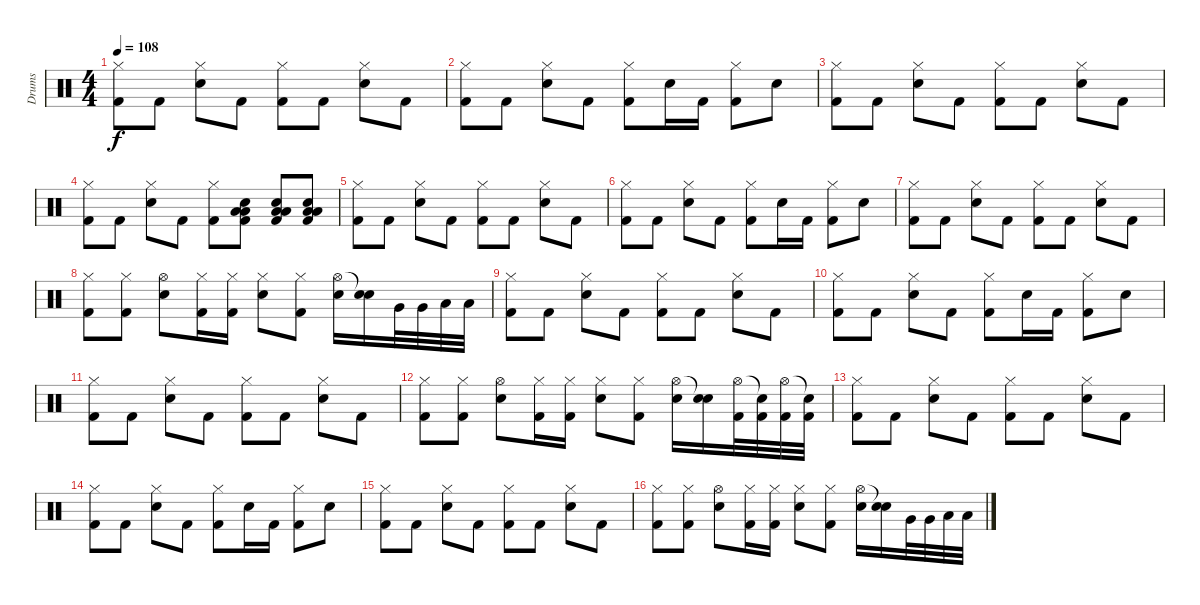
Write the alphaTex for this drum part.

\track ("Drums" "Drums") {instrument percussion}
\staff {score}
\articulation defaults
\ts (4 4)
\tempo 108
\clef neutral
\ks c
("Hi-Hat (closed)" "Kick (hit) 2").8{dy f} "Kick (hit) 2".8 ("Hi-Hat (closed)" "Electric Snare (hit)").8 "Kick (hit) 2".8 ("Hi-Hat (closed)" "Kick (hit) 2").8 "Kick (hit) 2".8 ("Hi-Hat (closed)" "Electric Snare (hit)").8 "Kick (hit) 2".8 |
("Hi-Hat (closed)" "Kick (hit) 2").8 "Kick (hit) 2".8 ("Hi-Hat (closed)" "Electric Snare (hit)").8 "Kick (hit) 2".8 ("Hi-Hat (closed)" "Kick (hit) 2").8 "Electric Snare (hit)".16 "Kick (hit) 2".16 ("Hi-Hat (closed)" "Kick (hit) 2").8 "Electric Snare (hit)".8 |
("Hi-Hat (closed)" "Kick (hit) 2").8 "Kick (hit) 2".8 ("Hi-Hat (closed)" "Electric Snare (hit)").8 "Kick (hit) 2".8 ("Hi-Hat (closed)" "Kick (hit) 2").8 "Kick (hit) 2".8 ("Hi-Hat (closed)" "Electric Snare (hit)").8 "Kick (hit) 2".8 |
("Hi-Hat (closed)" "Kick (hit) 2").8 "Kick (hit) 2".8 ("Hi-Hat (closed)" "Electric Snare (hit)").8 "Kick (hit) 2".8 ("Hi-Hat (closed)" "Kick (hit) 2").8 ("Low Floor Tom (hit)" "Kick (hit) 2" "Low Floor Tom (hit)" "Electric Snare (hit)").8 ("Low Floor Tom (hit)" "Kick (hit) 2" "Low Floor Tom (hit)" "Electric Snare (hit)").8 ("Low Floor Tom (hit)" "Kick (hit) 2" "Low Floor Tom (hit)" "Electric Snare (hit)").8 |
("Hi-Hat (closed)" "Kick (hit) 2").8 "Kick (hit) 2".8 ("Hi-Hat (closed)" "Electric Snare (hit)").8 "Kick (hit) 2".8 ("Hi-Hat (closed)" "Kick (hit) 2").8 "Kick (hit) 2".8 ("Hi-Hat (closed)" "Electric Snare (hit)").8 "Kick (hit) 2".8 |
("Hi-Hat (closed)" "Kick (hit) 2").8 "Kick (hit) 2".8 ("Hi-Hat (closed)" "Electric Snare (hit)").8 "Kick (hit) 2".8 ("Hi-Hat (closed)" "Kick (hit) 2").8 "Electric Snare (hit)".16 "Kick (hit) 2".16 ("Hi-Hat (closed)" "Kick (hit) 2").8 "Electric Snare (hit)".8 |
("Hi-Hat (closed)" "Kick (hit) 2").8 "Kick (hit) 2".8 ("Hi-Hat (closed)" "Electric Snare (hit)").8 "Kick (hit) 2".8 ("Hi-Hat (closed)" "Kick (hit) 2").8 "Kick (hit) 2".8 ("Hi-Hat (closed)" "Electric Snare (hit)").8 "Kick (hit) 2".8 |
("Hi-Hat (closed)" "Kick (hit) 2").8 ("Hi-Hat (closed)" "Kick (hit) 2").8 ("Hi-Hat (open)" "Electric Snare (hit)").8 ("Hi-Hat (closed)" "Kick (hit) 2").16 ("Hi-Hat (closed)" "Kick (hit) 2").16 ("Hi-Hat (closed)" "Electric Snare (hit)").8 ("Hi-Hat (closed)" "Kick (hit) 2").8 ("Hi-Hat (open)" "Electric Snare (hit)").16 ("Snare (hit)"{t} "Electric Snare (hit)").16 "Very Low Tom (hit)".32 "Very Low Tom (hit)".32 "Low Floor Tom (hit)".32 "Low Floor Tom (hit)".32 |
("Hi-Hat (closed)" "Kick (hit) 2").8 "Kick (hit) 2".8 ("Hi-Hat (closed)" "Electric Snare (hit)").8 "Kick (hit) 2".8 ("Hi-Hat (closed)" "Kick (hit) 2").8 "Kick (hit) 2".8 ("Hi-Hat (closed)" "Electric Snare (hit)").8 "Kick (hit) 2".8 |
("Hi-Hat (closed)" "Kick (hit) 2").8 "Kick (hit) 2".8 ("Hi-Hat (closed)" "Electric Snare (hit)").8 "Kick (hit) 2".8 ("Hi-Hat (closed)" "Kick (hit) 2").8 "Electric Snare (hit)".16 "Kick (hit) 2".16 ("Hi-Hat (closed)" "Kick (hit) 2").8 "Electric Snare (hit)".8 |
("Hi-Hat (closed)" "Kick (hit) 2").8 "Kick (hit) 2".8 ("Hi-Hat (closed)" "Electric Snare (hit)").8 "Kick (hit) 2".8 ("Hi-Hat (closed)" "Kick (hit) 2").8 "Kick (hit) 2".8 ("Hi-Hat (closed)" "Electric Snare (hit)").8 "Kick (hit) 2".8 |
("Hi-Hat (closed)" "Kick (hit) 2").8 ("Hi-Hat (closed)" "Kick (hit) 2").8 ("Hi-Hat (open)" "Electric Snare (hit)").8 ("Hi-Hat (closed)" "Kick (hit) 2").16 ("Hi-Hat (closed)" "Kick (hit) 2").16 ("Hi-Hat (closed)" "Electric Snare (hit)").8 ("Hi-Hat (closed)" "Kick (hit) 2").8 ("Hi-Hat (open)" "Electric Snare (hit)").16 ("Snare (hit)"{t} "Electric Snare (hit)").16 ("Hi-Hat (open)" "Kick (hit) 2").32 ("Snare (hit)"{t} "Kick (hit) 2").32 ("Hi-Hat (open)" "Kick (hit) 2").32 ("Snare (hit)"{t} "Kick (hit) 2").32 |
("Hi-Hat (closed)" "Kick (hit) 2").8 "Kick (hit) 2".8 ("Hi-Hat (closed)" "Electric Snare (hit)").8 "Kick (hit) 2".8 ("Hi-Hat (closed)" "Kick (hit) 2").8 "Kick (hit) 2".8 ("Hi-Hat (closed)" "Electric Snare (hit)").8 "Kick (hit) 2".8 |
("Hi-Hat (closed)" "Kick (hit) 2").8 "Kick (hit) 2".8 ("Hi-Hat (closed)" "Electric Snare (hit)").8 "Kick (hit) 2".8 ("Hi-Hat (closed)" "Kick (hit) 2").8 "Electric Snare (hit)".16 "Kick (hit) 2".16 ("Hi-Hat (closed)" "Kick (hit) 2").8 "Electric Snare (hit)".8 |
("Hi-Hat (closed)" "Kick (hit) 2").8 "Kick (hit) 2".8 ("Hi-Hat (closed)" "Electric Snare (hit)").8 "Kick (hit) 2".8 ("Hi-Hat (closed)" "Kick (hit) 2").8 "Kick (hit) 2".8 ("Hi-Hat (closed)" "Electric Snare (hit)").8 "Kick (hit) 2".8 |
("Hi-Hat (closed)" "Kick (hit) 2").8 ("Hi-Hat (closed)" "Kick (hit) 2").8 ("Hi-Hat (open)" "Electric Snare (hit)").8 ("Hi-Hat (closed)" "Kick (hit) 2").16 ("Hi-Hat (closed)" "Kick (hit) 2").16 ("Hi-Hat (closed)" "Electric Snare (hit)").8 ("Hi-Hat (closed)" "Kick (hit) 2").8 ("Hi-Hat (open)" "Electric Snare (hit)").16 ("Snare (hit)"{t} "Electric Snare (hit)").16 "Very Low Tom (hit)".32 "Very Low Tom (hit)".32 "Low Floor Tom (hit)".32 "Low Floor Tom (hit)".32
